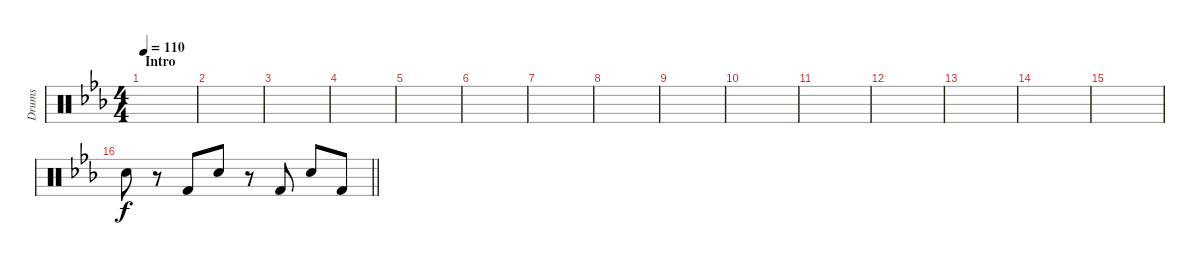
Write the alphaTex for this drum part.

\track ("Drums" "Drums") {instrument percussion}
\staff {score}
\articulation defaults
\ts (4 4)
\section ("" "Intro")
\tempo 110
\clef neutral
\ks cminor
|
|
|
|
|
|
|
|
|
|
|
|
|
|
|
\barLineRight lightlight "Snare (hit) 2".8
r.8 "Kick (hit) 2".8 "Snare (hit) 2".8 r.8 "Kick (hit) 2".8 "Snare (hit) 2".8 "Kick (hit) 2".8
